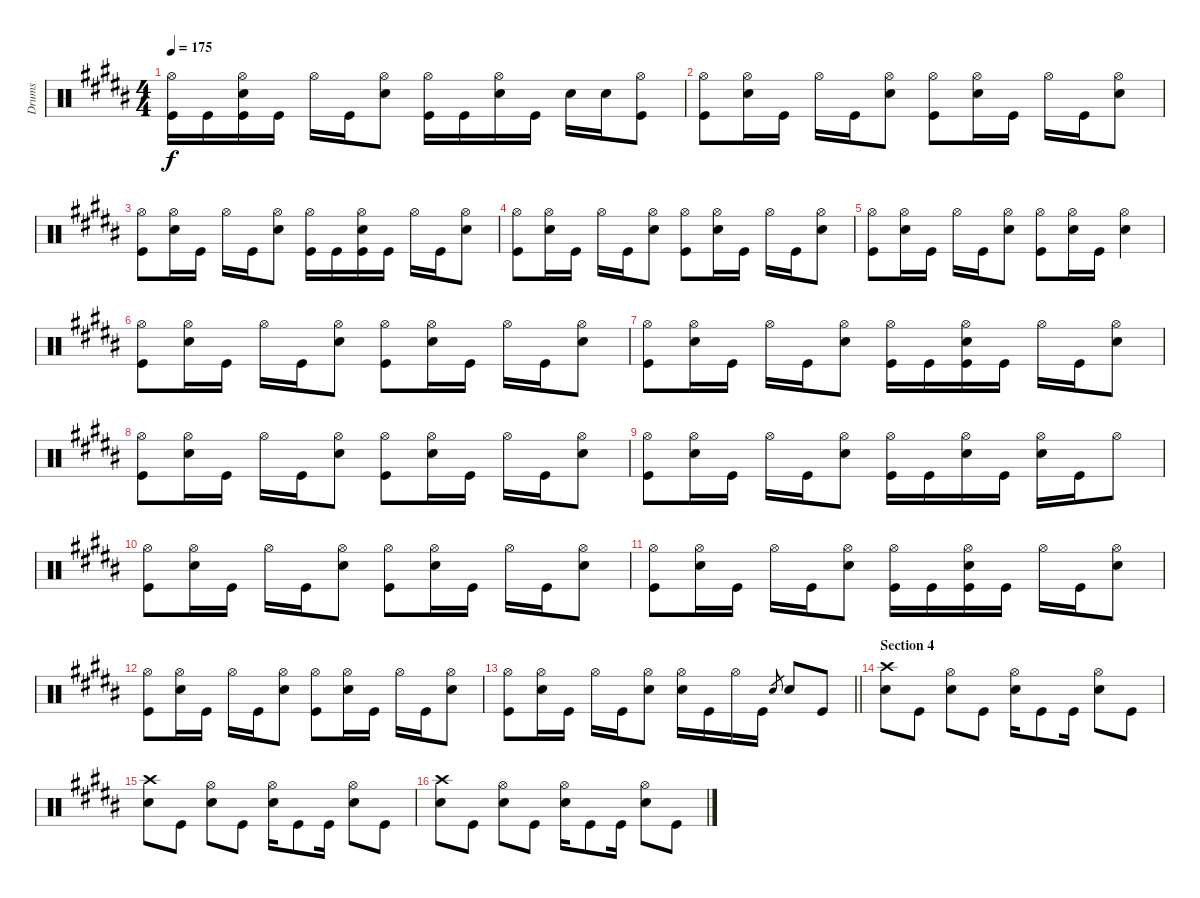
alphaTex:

\track ("Drums" "Drums") {instrument percussion}
\staff {score}
\articulation defaults
\ts (4 4)
\tempo 175
\clef neutral
\ks b
("Hi-Hat (open)" "Kick (hit)").16{dy f} "Kick (hit)".16 ("Hi-Hat (open)" "Snare (hit) 2" "Kick (hit)").16 "Kick (hit)".16 "Hi-Hat (open)".16 "Kick (hit)".16 ("Hi-Hat (open)" "Snare (hit) 2").8 ("Hi-Hat (open)" "Kick (hit)").16 "Kick (hit)".16 ("Hi-Hat (open)" "Snare (hit) 2").16 "Kick (hit)".16 "Snare (hit) 2".16 "Snare (hit) 2".16 ("Hi-Hat (open)" "Kick (hit)").8 |
("Hi-Hat (open)" "Kick (hit)").8 ("Hi-Hat (open)" "Snare (hit) 2").16 "Kick (hit)".16 "Hi-Hat (open)".16 "Kick (hit)".16 ("Hi-Hat (open)" "Snare (hit) 2").8 ("Hi-Hat (open)" "Kick (hit)").8 ("Hi-Hat (open)" "Snare (hit) 2").16 "Kick (hit)".16 "Hi-Hat (open)".16 "Kick (hit)".16 ("Hi-Hat (open)" "Snare (hit) 2").8 |
("Hi-Hat (open)" "Kick (hit)").8 ("Hi-Hat (open)" "Snare (hit) 2").16 "Kick (hit)".16 "Hi-Hat (open)".16 "Kick (hit)".16 ("Hi-Hat (open)" "Snare (hit) 2").8 ("Hi-Hat (open)" "Kick (hit)").16 "Kick (hit)".16 ("Hi-Hat (open)" "Snare (hit) 2" "Kick (hit)").16 "Kick (hit)".16 "Hi-Hat (open)".16 "Kick (hit)".16 ("Hi-Hat (open)" "Snare (hit) 2").8 |
("Hi-Hat (open)" "Kick (hit)").8 ("Hi-Hat (open)" "Snare (hit) 2").16 "Kick (hit)".16 "Hi-Hat (open)".16 "Kick (hit)".16 ("Hi-Hat (open)" "Snare (hit) 2").8 ("Hi-Hat (open)" "Kick (hit)").8 ("Hi-Hat (open)" "Snare (hit) 2").16 "Kick (hit)".16 "Hi-Hat (open)".16 "Kick (hit)".16 ("Hi-Hat (open)" "Snare (hit) 2").8 |
("Hi-Hat (open)" "Kick (hit)").8 ("Hi-Hat (open)" "Snare (hit) 2").16 "Kick (hit)".16 "Hi-Hat (open)".16 "Kick (hit)".16 ("Hi-Hat (open)" "Snare (hit) 2").8 ("Hi-Hat (open)" "Kick (hit)").8 ("Hi-Hat (open)" "Snare (hit) 2").16 "Kick (hit)".16 ("Hi-Hat (open)" "Snare (hit) 2").4 |
("Hi-Hat (open)" "Kick (hit)").8 ("Hi-Hat (open)" "Snare (hit) 2").16 "Kick (hit)".16 "Hi-Hat (open)".16 "Kick (hit)".16 ("Hi-Hat (open)" "Snare (hit) 2").8 ("Hi-Hat (open)" "Kick (hit)").8 ("Hi-Hat (open)" "Snare (hit) 2").16 "Kick (hit)".16 "Hi-Hat (open)".16 "Kick (hit)".16 ("Hi-Hat (open)" "Snare (hit) 2").8 |
("Hi-Hat (open)" "Kick (hit)").8 ("Hi-Hat (open)" "Snare (hit) 2").16 "Kick (hit)".16 "Hi-Hat (open)".16 "Kick (hit)".16 ("Hi-Hat (open)" "Snare (hit) 2").8 ("Hi-Hat (open)" "Kick (hit)").16 "Kick (hit)".16 ("Hi-Hat (open)" "Snare (hit) 2" "Kick (hit)").16 "Kick (hit)".16 "Hi-Hat (open)".16 "Kick (hit)".16 ("Hi-Hat (open)" "Snare (hit) 2").8 |
("Hi-Hat (open)" "Kick (hit)").8 ("Hi-Hat (open)" "Snare (hit) 2").16 "Kick (hit)".16 "Hi-Hat (open)".16 "Kick (hit)".16 ("Hi-Hat (open)" "Snare (hit) 2").8 ("Hi-Hat (open)" "Kick (hit)").8 ("Hi-Hat (open)" "Snare (hit) 2").16 "Kick (hit)".16 "Hi-Hat (open)".16 "Kick (hit)".16 ("Hi-Hat (open)" "Snare (hit) 2").8 |
("Hi-Hat (open)" "Kick (hit)").8 ("Hi-Hat (open)" "Snare (hit) 2").16 "Kick (hit)".16 "Hi-Hat (open)".16 "Kick (hit)".16 ("Hi-Hat (open)" "Snare (hit) 2").8 ("Hi-Hat (open)" "Kick (hit)").16 "Kick (hit)".16 ("Hi-Hat (open)" "Snare (hit) 2").16 "Kick (hit)".16 ("Hi-Hat (open)" "Snare (hit) 2").16 "Kick (hit)".16 "Hi-Hat (open)".8 |
("Hi-Hat (open)" "Kick (hit)").8 ("Hi-Hat (open)" "Snare (hit) 2").16 "Kick (hit)".16 "Hi-Hat (open)".16 "Kick (hit)".16 ("Hi-Hat (open)" "Snare (hit) 2").8 ("Hi-Hat (open)" "Kick (hit)").8 ("Hi-Hat (open)" "Snare (hit) 2").16 "Kick (hit)".16 "Hi-Hat (open)".16 "Kick (hit)".16 ("Hi-Hat (open)" "Snare (hit) 2").8 |
("Hi-Hat (open)" "Kick (hit)").8 ("Hi-Hat (open)" "Snare (hit) 2").16 "Kick (hit)".16 "Hi-Hat (open)".16 "Kick (hit)".16 ("Hi-Hat (open)" "Snare (hit) 2").8 ("Hi-Hat (open)" "Kick (hit)").16 "Kick (hit)".16 ("Hi-Hat (open)" "Snare (hit) 2" "Kick (hit)").16 "Kick (hit)".16 "Hi-Hat (open)".16 "Kick (hit)".16 ("Hi-Hat (open)" "Snare (hit) 2").8 |
("Hi-Hat (open)" "Kick (hit)").8 ("Hi-Hat (open)" "Snare (hit) 2").16 "Kick (hit)".16 "Hi-Hat (open)".16 "Kick (hit)".16 ("Hi-Hat (open)" "Snare (hit) 2").8 ("Hi-Hat (open)" "Kick (hit)").8 ("Hi-Hat (open)" "Snare (hit) 2").16 "Kick (hit)".16 "Hi-Hat (open)".16 "Kick (hit)".16 ("Hi-Hat (open)" "Snare (hit) 2").8 |
\barLineRight lightlight
("Hi-Hat (open)" "Kick (hit)").8 ("Hi-Hat (open)" "Snare (hit) 2").16 "Kick (hit)".16 "Hi-Hat (open)".16 "Kick (hit)".16 ("Hi-Hat (open)" "Snare (hit) 2").8 ("Hi-Hat (open)" "Snare (hit) 2").16 "Kick (hit)".16 "Hi-Hat (open)".16 "Kick (hit)".16 "Snare (hit) 2".8{gr} "Snare (hit) 2".8 "Kick (hit)".8 |
\section ("" "Section 4")
("Crash high (hit)" "Snare (hit) 2").8 "Kick (hit)".8 ("Hi-Hat (open)" "Snare (hit) 2").8 "Kick (hit)".8 ("Hi-Hat (open)" "Snare (hit) 2").16 "Kick (hit)".8 "Kick (hit)".16 ("Hi-Hat (open)" "Snare (hit) 2").8 "Kick (hit)".8 |
("Crash high (hit)" "Snare (hit) 2").8 "Kick (hit)".8 ("Hi-Hat (open)" "Snare (hit) 2").8 "Kick (hit)".8 ("Hi-Hat (open)" "Snare (hit) 2").16 "Kick (hit)".8 "Kick (hit)".16 ("Hi-Hat (open)" "Snare (hit) 2").8 "Kick (hit)".8 |
("Crash high (hit)" "Snare (hit) 2").8 "Kick (hit)".8 ("Hi-Hat (open)" "Snare (hit) 2").8 "Kick (hit)".8 ("Hi-Hat (open)" "Snare (hit) 2").16 "Kick (hit)".8 "Kick (hit)".16 ("Hi-Hat (open)" "Snare (hit) 2").8 "Kick (hit)".8
